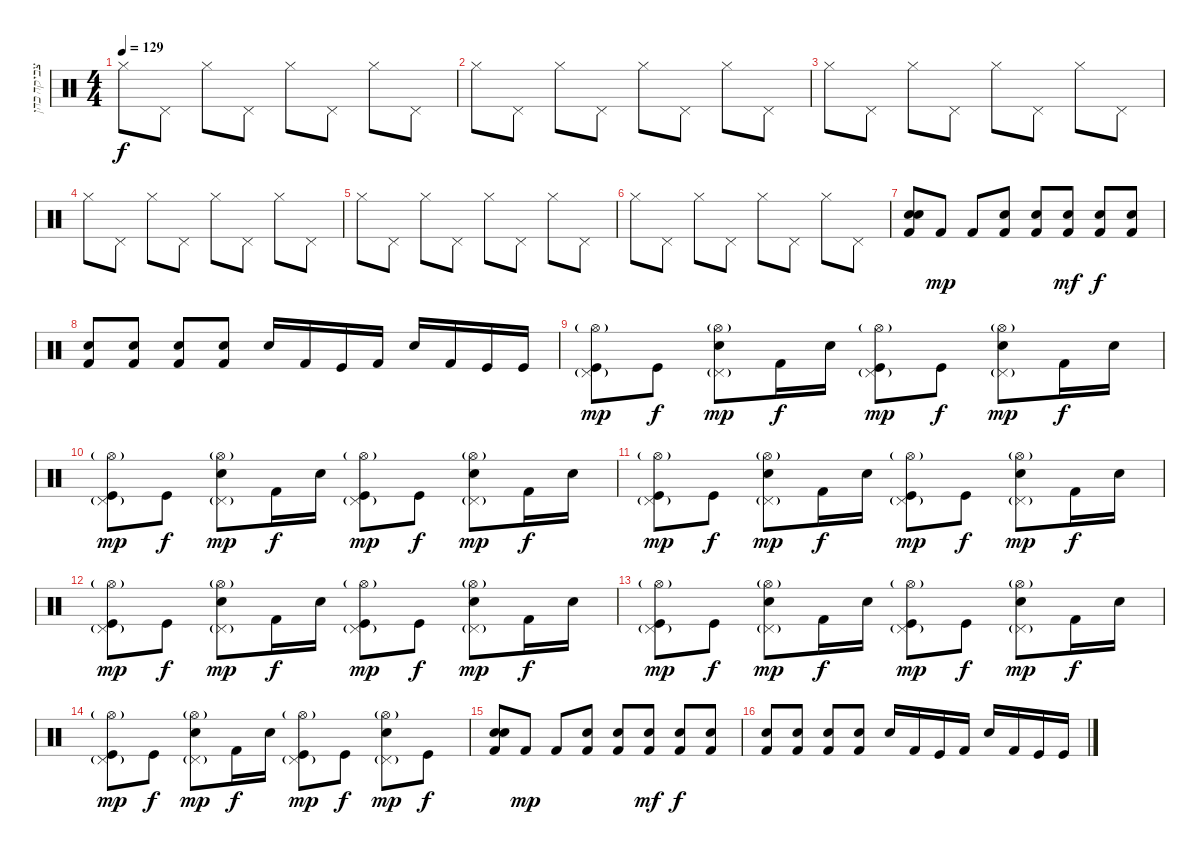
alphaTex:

\track ("צביקה כהן - תופים" "צביקה כהן ") {instrument percussion}
\staff {score}
\articulation defaults
\ts (4 4)
\tempo 129
\clef neutral
\ks c "Hi-Hat (closed)".8{dy f} "Pedal Hi-Hat (hit)".8 "Hi-Hat (closed)".8 "Pedal Hi-Hat (hit)".8 "Hi-Hat (closed)".8 "Pedal Hi-Hat (hit)".8 "Hi-Hat (closed)".8 "Pedal Hi-Hat (hit)".8
|
"Hi-Hat (closed)".8 "Pedal Hi-Hat (hit)".8 "Hi-Hat (closed)".8 "Pedal Hi-Hat (hit)".8 "Hi-Hat (closed)".8 "Pedal Hi-Hat (hit)".8 "Hi-Hat (closed)".8 "Pedal Hi-Hat (hit)".8 |
"Hi-Hat (closed)".8 "Pedal Hi-Hat (hit)".8 "Hi-Hat (closed)".8 "Pedal Hi-Hat (hit)".8 "Hi-Hat (closed)".8 "Pedal Hi-Hat (hit)".8 "Hi-Hat (closed)".8 "Pedal Hi-Hat (hit)".8 |
"Hi-Hat (closed)".8 "Pedal Hi-Hat (hit)".8 "Hi-Hat (closed)".8 "Pedal Hi-Hat (hit)".8 "Hi-Hat (closed)".8 "Pedal Hi-Hat (hit)".8 "Hi-Hat (closed)".8 "Pedal Hi-Hat (hit)".8 |
"Hi-Hat (closed)".8 "Pedal Hi-Hat (hit)".8 "Hi-Hat (closed)".8 "Pedal Hi-Hat (hit)".8 "Hi-Hat (closed)".8 "Pedal Hi-Hat (hit)".8 "Hi-Hat (closed)".8 "Pedal Hi-Hat (hit)".8 |
"Hi-Hat (closed)".8 "Pedal Hi-Hat (hit)".8 "Hi-Hat (closed)".8 "Pedal Hi-Hat (hit)".8 "Hi-Hat (closed)".8 "Pedal Hi-Hat (hit)".8 "Hi-Hat (closed)".8 "Pedal Hi-Hat (hit)".8 |
("Electric Snare (hit)" "Snare (hit) 2" "Kick (hit) 2").8 "Kick (hit) 2".8{dy mp} "Kick (hit) 2".8 ("Electric Snare (hit)" "Kick (hit) 2").8 ("Electric Snare (hit)" "Kick (hit) 2").8 ("Electric Snare (hit)" "Kick (hit) 2").8{dy mf} ("Electric Snare (hit)" "Kick (hit) 2").8{dy f} ("Electric Snare (hit)" "Kick (hit) 2").8 |
("Electric Snare (hit)" "Kick (hit) 2").8 ("Electric Snare (hit)" "Kick (hit) 2").8 ("Electric Snare (hit)" "Kick (hit) 2").8 ("Electric Snare (hit)" "Kick (hit) 2").8 "Electric Snare (hit)".16 "Kick (hit) 2".16 "Kick (hit)".16 "Kick (hit) 2".16 "Electric Snare (hit)".16 "Kick (hit) 2".16 "Kick (hit)".16 "Kick (hit)".16 |
("Hi-Hat (open)"{g} "Kick (hit)" "Pedal Hi-Hat (hit)"{g}).8{dy mp} "Kick (hit)".8{dy f} ("Hi-Hat (open)"{g} "Electric Snare (hit)" "Pedal Hi-Hat (hit)"{g}).8{dy mp} "Kick (hit) 2".16{dy f} "Electric Snare (hit)".16 ("Hi-Hat (open)"{g} "Kick (hit)" "Pedal Hi-Hat (hit)"{g}).8{dy mp} "Kick (hit)".8{dy f} ("Hi-Hat (open)"{g} "Electric Snare (hit)" "Pedal Hi-Hat (hit)"{g}).8{dy mp} "Kick (hit) 2".16{dy f} "Electric Snare (hit)".16 |
("Hi-Hat (open)"{g} "Kick (hit)" "Pedal Hi-Hat (hit)"{g}).8{dy mp} "Kick (hit)".8{dy f} ("Hi-Hat (open)"{g} "Electric Snare (hit)" "Pedal Hi-Hat (hit)"{g}).8{dy mp} "Kick (hit) 2".16{dy f} "Electric Snare (hit)".16 ("Hi-Hat (open)"{g} "Kick (hit)" "Pedal Hi-Hat (hit)"{g}).8{dy mp} "Kick (hit)".8{dy f} ("Hi-Hat (open)"{g} "Electric Snare (hit)" "Pedal Hi-Hat (hit)"{g}).8{dy mp} "Kick (hit) 2".16{dy f} "Electric Snare (hit)".16 |
("Hi-Hat (open)"{g} "Kick (hit)" "Pedal Hi-Hat (hit)"{g}).8{dy mp} "Kick (hit)".8{dy f} ("Hi-Hat (open)"{g} "Electric Snare (hit)" "Pedal Hi-Hat (hit)"{g}).8{dy mp} "Kick (hit) 2".16{dy f} "Electric Snare (hit)".16 ("Hi-Hat (open)"{g} "Kick (hit)" "Pedal Hi-Hat (hit)"{g}).8{dy mp} "Kick (hit)".8{dy f} ("Hi-Hat (open)"{g} "Electric Snare (hit)" "Pedal Hi-Hat (hit)"{g}).8{dy mp} "Kick (hit) 2".16{dy f} "Electric Snare (hit)".16 |
("Hi-Hat (open)"{g} "Kick (hit)" "Pedal Hi-Hat (hit)"{g}).8{dy mp} "Kick (hit)".8{dy f} ("Hi-Hat (open)"{g} "Electric Snare (hit)" "Pedal Hi-Hat (hit)"{g}).8{dy mp} "Kick (hit) 2".16{dy f} "Electric Snare (hit)".16 ("Hi-Hat (open)"{g} "Kick (hit)" "Pedal Hi-Hat (hit)"{g}).8{dy mp} "Kick (hit)".8{dy f} ("Hi-Hat (open)"{g} "Electric Snare (hit)" "Pedal Hi-Hat (hit)"{g}).8{dy mp} "Kick (hit) 2".16{dy f} "Electric Snare (hit)".16 |
("Hi-Hat (open)"{g} "Kick (hit)" "Pedal Hi-Hat (hit)"{g}).8{dy mp} "Kick (hit)".8{dy f} ("Hi-Hat (open)"{g} "Electric Snare (hit)" "Pedal Hi-Hat (hit)"{g}).8{dy mp} "Kick (hit) 2".16{dy f} "Electric Snare (hit)".16 ("Hi-Hat (open)"{g} "Kick (hit)" "Pedal Hi-Hat (hit)"{g}).8{dy mp} "Kick (hit)".8{dy f} ("Hi-Hat (open)"{g} "Electric Snare (hit)" "Pedal Hi-Hat (hit)"{g}).8{dy mp} "Kick (hit) 2".16{dy f} "Electric Snare (hit)".16 |
("Hi-Hat (open)"{g} "Kick (hit)" "Pedal Hi-Hat (hit)"{g}).8{dy mp} "Kick (hit)".8{dy f} ("Hi-Hat (open)"{g} "Electric Snare (hit)" "Pedal Hi-Hat (hit)"{g}).8{dy mp} "Kick (hit) 2".16{dy f} "Electric Snare (hit)".16 ("Hi-Hat (open)"{g} "Kick (hit)" "Pedal Hi-Hat (hit)"{g}).8{dy mp} "Kick (hit)".8{dy f} ("Hi-Hat (open)"{g} "Electric Snare (hit)" "Pedal Hi-Hat (hit)"{g}).8{dy mp} "Kick (hit)".8{dy f} |
("Electric Snare (hit)" "Snare (hit) 2" "Kick (hit) 2").8 "Kick (hit) 2".8{dy mp} "Kick (hit) 2".8 ("Electric Snare (hit)" "Kick (hit) 2").8 ("Electric Snare (hit)" "Kick (hit) 2").8 ("Electric Snare (hit)" "Kick (hit) 2").8{dy mf} ("Electric Snare (hit)" "Kick (hit) 2").8{dy f} ("Electric Snare (hit)" "Kick (hit) 2").8 |
("Electric Snare (hit)" "Kick (hit) 2").8 ("Electric Snare (hit)" "Kick (hit) 2").8 ("Electric Snare (hit)" "Kick (hit) 2").8 ("Electric Snare (hit)" "Kick (hit) 2").8 "Electric Snare (hit)".16 "Kick (hit) 2".16 "Kick (hit)".16 "Kick (hit) 2".16 "Electric Snare (hit)".16 "Kick (hit) 2".16 "Kick (hit)".16 "Kick (hit)".16
